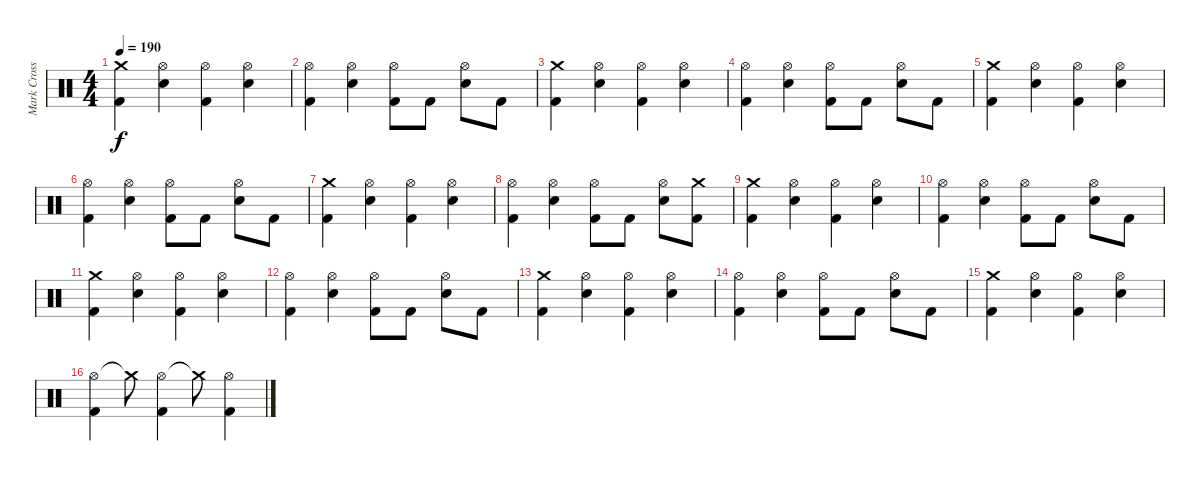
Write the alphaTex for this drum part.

\track ("Mark Cross" "Mark Cross") {instrument percussion}
\staff {score}
\articulation defaults
\ts (4 4)
\tempo 190
\clef neutral
\ks c
("Crash medium (hit)" "Kick (hit) 2").4{dy f} ("Hi-Hat (open)" "Electric Snare (hit)").4 ("Hi-Hat (open)" "Kick (hit) 2").4 ("Hi-Hat (open)" "Electric Snare (hit)").4 |
("Hi-Hat (open)" "Kick (hit) 2").4 ("Hi-Hat (open)" "Electric Snare (hit)").4 ("Hi-Hat (open)" "Kick (hit) 2").8 "Kick (hit) 2".8 ("Hi-Hat (open)" "Electric Snare (hit)").8 "Kick (hit) 2".8 |
("Crash medium (hit)" "Kick (hit) 2").4 ("Hi-Hat (open)" "Electric Snare (hit)").4 ("Hi-Hat (open)" "Kick (hit) 2").4 ("Hi-Hat (open)" "Electric Snare (hit)").4 |
("Hi-Hat (open)" "Kick (hit) 2").4 ("Hi-Hat (open)" "Electric Snare (hit)").4 ("Hi-Hat (open)" "Kick (hit) 2").8 "Kick (hit) 2".8 ("Hi-Hat (open)" "Electric Snare (hit)").8 "Kick (hit) 2".8 |
("Crash medium (hit)" "Kick (hit) 2").4 ("Hi-Hat (open)" "Electric Snare (hit)").4 ("Hi-Hat (open)" "Kick (hit) 2").4 ("Hi-Hat (open)" "Electric Snare (hit)").4 |
("Hi-Hat (open)" "Kick (hit) 2").4 ("Hi-Hat (open)" "Electric Snare (hit)").4 ("Hi-Hat (open)" "Kick (hit) 2").8 "Kick (hit) 2".8 ("Hi-Hat (open)" "Electric Snare (hit)").8 "Kick (hit) 2".8 |
("Crash medium (hit)" "Kick (hit) 2").4 ("Hi-Hat (open)" "Electric Snare (hit)").4 ("Hi-Hat (open)" "Kick (hit) 2").4 ("Hi-Hat (open)" "Electric Snare (hit)").4 |
("Hi-Hat (open)" "Kick (hit) 2").4 ("Hi-Hat (open)" "Electric Snare (hit)").4 ("Hi-Hat (open)" "Kick (hit) 2").8 "Kick (hit) 2".8 ("Hi-Hat (open)" "Electric Snare (hit)").8 ("Crash medium (hit)" "Kick (hit) 2").8 |
("Crash medium (hit)" "Kick (hit) 2").4 ("Hi-Hat (open)" "Electric Snare (hit)").4 ("Hi-Hat (open)" "Kick (hit) 2").4 ("Hi-Hat (open)" "Electric Snare (hit)").4 |
("Hi-Hat (open)" "Kick (hit) 2").4 ("Hi-Hat (open)" "Electric Snare (hit)").4 ("Hi-Hat (open)" "Kick (hit) 2").8 "Kick (hit) 2".8 ("Hi-Hat (open)" "Electric Snare (hit)").8 "Kick (hit) 2".8 |
("Crash medium (hit)" "Kick (hit) 2").4 ("Hi-Hat (open)" "Electric Snare (hit)").4 ("Hi-Hat (open)" "Kick (hit) 2").4 ("Hi-Hat (open)" "Electric Snare (hit)").4 |
("Hi-Hat (open)" "Kick (hit) 2").4 ("Hi-Hat (open)" "Electric Snare (hit)").4 ("Hi-Hat (open)" "Kick (hit) 2").8 "Kick (hit) 2".8 ("Hi-Hat (open)" "Electric Snare (hit)").8 "Kick (hit) 2".8 |
("Crash medium (hit)" "Kick (hit) 2").4 ("Hi-Hat (open)" "Electric Snare (hit)").4 ("Hi-Hat (open)" "Kick (hit) 2").4 ("Hi-Hat (open)" "Electric Snare (hit)").4 |
("Hi-Hat (open)" "Kick (hit) 2").4 ("Hi-Hat (open)" "Electric Snare (hit)").4 ("Hi-Hat (open)" "Kick (hit) 2").8 "Kick (hit) 2".8 ("Hi-Hat (open)" "Electric Snare (hit)").8 "Kick (hit) 2".8 |
("Crash medium (hit)" "Kick (hit) 2").4 ("Hi-Hat (open)" "Electric Snare (hit)").4 ("Hi-Hat (open)" "Kick (hit) 2").4 ("Hi-Hat (open)" "Electric Snare (hit)").4 |
("Hi-Hat (open)" "Kick (hit) 2").4 "Crash medium (hit)"{t}.8 ("Hi-Hat (open)" "Kick (hit) 2").4 "Crash medium (hit)"{t}.8 ("Hi-Hat (open)" "Kick (hit) 2").4
